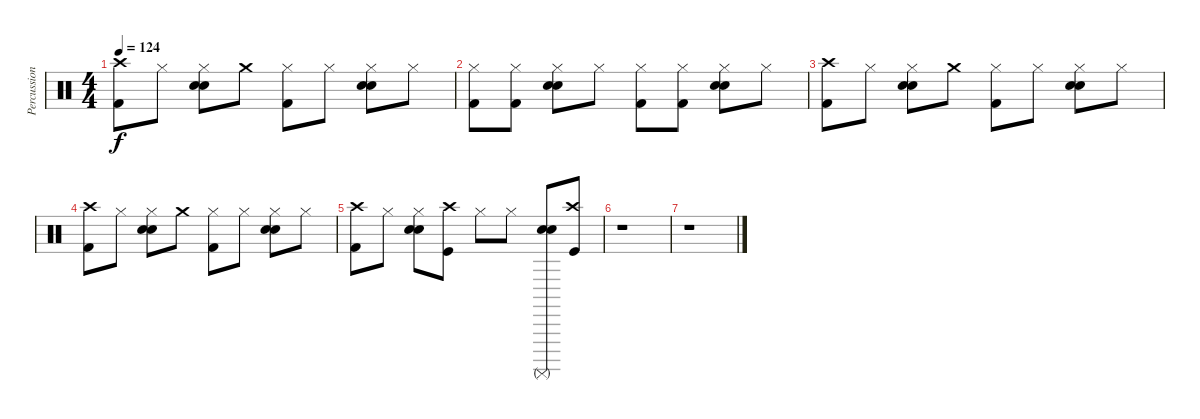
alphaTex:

\track ("Percussion" "Percussion") {instrument percussion}
\staff {score}
\articulation defaults
\ts (4 4)
\tempo 124
\clef neutral
\ks c
("Crash high (hit)" "Kick (hit) 2").8{dy f} "Hi-Hat (closed)".8 ("Hi-Hat (closed)" "Snare (hit) 2" "Electric Snare (hit)").8 "Crash medium (hit)".8 ("Hi-Hat (closed)" "Kick (hit) 2").8 "Hi-Hat (closed)".8 ("Hi-Hat (closed)" "Snare (hit) 2" "Electric Snare (hit)").8 "Hi-Hat (closed)".8 |
("Hi-Hat (closed)" "Kick (hit) 2").8 ("Hi-Hat (closed)" "Kick (hit) 2").8 ("Hi-Hat (closed)" "Snare (hit) 2" "Electric Snare (hit)").8 "Hi-Hat (closed)".8 ("Hi-Hat (closed)" "Kick (hit) 2").8 ("Hi-Hat (closed)" "Kick (hit) 2").8 ("Hi-Hat (closed)" "Snare (hit) 2" "Electric Snare (hit)").8 "Hi-Hat (closed)".8 |
("Crash high (hit)" "Kick (hit) 2").8 "Hi-Hat (closed)".8 ("Hi-Hat (closed)" "Snare (hit) 2" "Electric Snare (hit)").8 "Crash medium (hit)".8 ("Hi-Hat (closed)" "Kick (hit) 2").8 "Hi-Hat (closed)".8 ("Hi-Hat (closed)" "Snare (hit) 2" "Electric Snare (hit)").8 "Hi-Hat (closed)".8 |
("Crash high (hit)" "Kick (hit) 2").8 "Hi-Hat (closed)".8 ("Hi-Hat (closed)" "Snare (hit) 2" "Electric Snare (hit)").8 "Crash medium (hit)".8 ("Hi-Hat (closed)" "Kick (hit) 2").8 "Hi-Hat (closed)".8 ("Hi-Hat (closed)" "Snare (hit) 2" "Electric Snare (hit)").8 "Hi-Hat (closed)".8 |
("Crash high (hit)" "Kick (hit) 2").8 "Hi-Hat (closed)".8 ("Hi-Hat (closed)" "Snare (hit) 2" "Electric Snare (hit)").8 ("Crash high (hit)" "Kick (hit)").8 "Hi-Hat (closed)".8 "Hi-Hat (closed)".8 ("Surdo (mute)" "Snare (hit) 2" "Electric Snare (hit)").8 ("Crash high (hit)" "Kick (hit)").8 |
r.1 |
r.1
